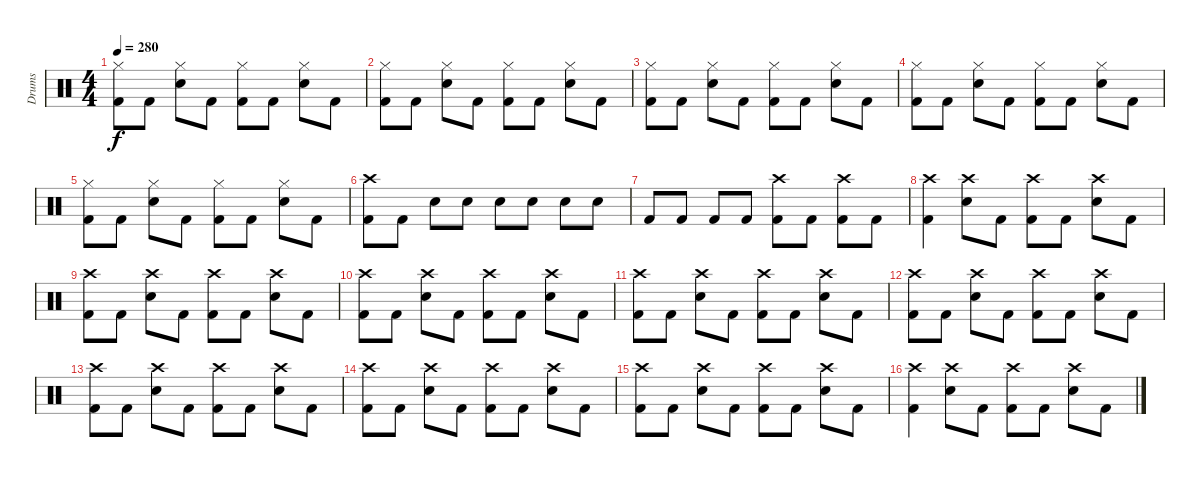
\track ("Drums" "Drums") {instrument percussion}
\staff {score}
\articulation defaults
\ts (4 4)
\tempo 280
\clef neutral
\ks c
("Hi-Hat (closed)" "Kick (hit) 2").8{dy f} "Kick (hit) 2".8 ("Hi-Hat (closed)" "Snare (hit) 2").8 "Kick (hit) 2".8 ("Hi-Hat (closed)" "Kick (hit) 2").8 "Kick (hit) 2".8 ("Hi-Hat (closed)" "Snare (hit) 2").8 "Kick (hit) 2".8 |
("Hi-Hat (closed)" "Kick (hit) 2").8 "Kick (hit) 2".8 ("Hi-Hat (closed)" "Snare (hit) 2").8 "Kick (hit) 2".8 ("Hi-Hat (closed)" "Kick (hit) 2").8 "Kick (hit) 2".8 ("Hi-Hat (closed)" "Snare (hit) 2").8 "Kick (hit) 2".8 |
("Hi-Hat (closed)" "Kick (hit) 2").8 "Kick (hit) 2".8 ("Hi-Hat (closed)" "Snare (hit) 2").8 "Kick (hit) 2".8 ("Hi-Hat (closed)" "Kick (hit) 2").8 "Kick (hit) 2".8 ("Hi-Hat (closed)" "Snare (hit) 2").8 "Kick (hit) 2".8 |
("Hi-Hat (closed)" "Kick (hit) 2").8 "Kick (hit) 2".8 ("Hi-Hat (closed)" "Snare (hit) 2").8 "Kick (hit) 2".8 ("Hi-Hat (closed)" "Kick (hit) 2").8 "Kick (hit) 2".8 ("Hi-Hat (closed)" "Snare (hit) 2").8 "Kick (hit) 2".8 |
("Hi-Hat (closed)" "Kick (hit) 2").8 "Kick (hit) 2".8 ("Hi-Hat (closed)" "Snare (hit) 2").8 "Kick (hit) 2".8 ("Hi-Hat (closed)" "Kick (hit) 2").8 "Kick (hit) 2".8 ("Hi-Hat (closed)" "Snare (hit) 2").8 "Kick (hit) 2".8 |
("Kick (hit) 2" "Crash high (hit)").8 "Kick (hit) 2".8 "Snare (hit) 2".8 "Snare (hit) 2".8 "Snare (hit) 2".8 "Snare (hit) 2".8 "Snare (hit) 2".8 "Snare (hit) 2".8 |
"Kick (hit) 2".8 "Kick (hit) 2".8 "Kick (hit) 2".8 "Kick (hit) 2".8 ("Kick (hit) 2" "Crash high (hit)").8 "Kick (hit) 2".8 ("Kick (hit) 2" "Crash high (hit)").8 "Kick (hit) 2".8 |
("Crash high (hit)" "Kick (hit) 2").4 ("Crash high (hit)" "Snare (hit) 2").8 "Kick (hit) 2".8 ("Crash high (hit)" "Kick (hit) 2").8 "Kick (hit) 2".8 ("Crash high (hit)" "Snare (hit) 2").8 "Kick (hit) 2".8 |
("Crash high (hit)" "Kick (hit) 2").8 "Kick (hit) 2".8 ("Crash high (hit)" "Snare (hit) 2").8 "Kick (hit) 2".8 ("Crash high (hit)" "Kick (hit) 2").8 "Kick (hit) 2".8 ("Crash high (hit)" "Snare (hit) 2").8 "Kick (hit) 2".8 |
("Crash high (hit)" "Kick (hit) 2").8 "Kick (hit) 2".8 ("Crash high (hit)" "Snare (hit) 2").8 "Kick (hit) 2".8 ("Crash high (hit)" "Kick (hit) 2").8 "Kick (hit) 2".8 ("Crash high (hit)" "Snare (hit) 2").8 "Kick (hit) 2".8 |
("Crash high (hit)" "Kick (hit) 2").8 "Kick (hit) 2".8 ("Crash high (hit)" "Snare (hit) 2").8 "Kick (hit) 2".8 ("Crash high (hit)" "Kick (hit) 2").8 "Kick (hit) 2".8 ("Crash high (hit)" "Snare (hit) 2").8 "Kick (hit) 2".8 |
("Crash high (hit)" "Kick (hit) 2").8 "Kick (hit) 2".8 ("Crash high (hit)" "Snare (hit) 2").8 "Kick (hit) 2".8 ("Crash high (hit)" "Kick (hit) 2").8 "Kick (hit) 2".8 ("Crash high (hit)" "Snare (hit) 2").8 "Kick (hit) 2".8 |
("Crash high (hit)" "Kick (hit) 2").8 "Kick (hit) 2".8 ("Crash high (hit)" "Snare (hit) 2").8 "Kick (hit) 2".8 ("Crash high (hit)" "Kick (hit) 2").8 "Kick (hit) 2".8 ("Crash high (hit)" "Snare (hit) 2").8 "Kick (hit) 2".8 |
("Crash high (hit)" "Kick (hit) 2").8 "Kick (hit) 2".8 ("Crash high (hit)" "Snare (hit) 2").8 "Kick (hit) 2".8 ("Crash high (hit)" "Kick (hit) 2").8 "Kick (hit) 2".8 ("Crash high (hit)" "Snare (hit) 2").8 "Kick (hit) 2".8 |
("Crash high (hit)" "Kick (hit) 2").8 "Kick (hit) 2".8 ("Crash high (hit)" "Snare (hit) 2").8 "Kick (hit) 2".8 ("Crash high (hit)" "Kick (hit) 2").8 "Kick (hit) 2".8 ("Crash high (hit)" "Snare (hit) 2").8 "Kick (hit) 2".8 |
("Crash high (hit)" "Kick (hit) 2").4 ("Crash high (hit)" "Snare (hit) 2").8 "Kick (hit) 2".8 ("Crash high (hit)" "Kick (hit) 2").8 "Kick (hit) 2".8 ("Crash high (hit)" "Snare (hit) 2").8 "Kick (hit) 2".8
